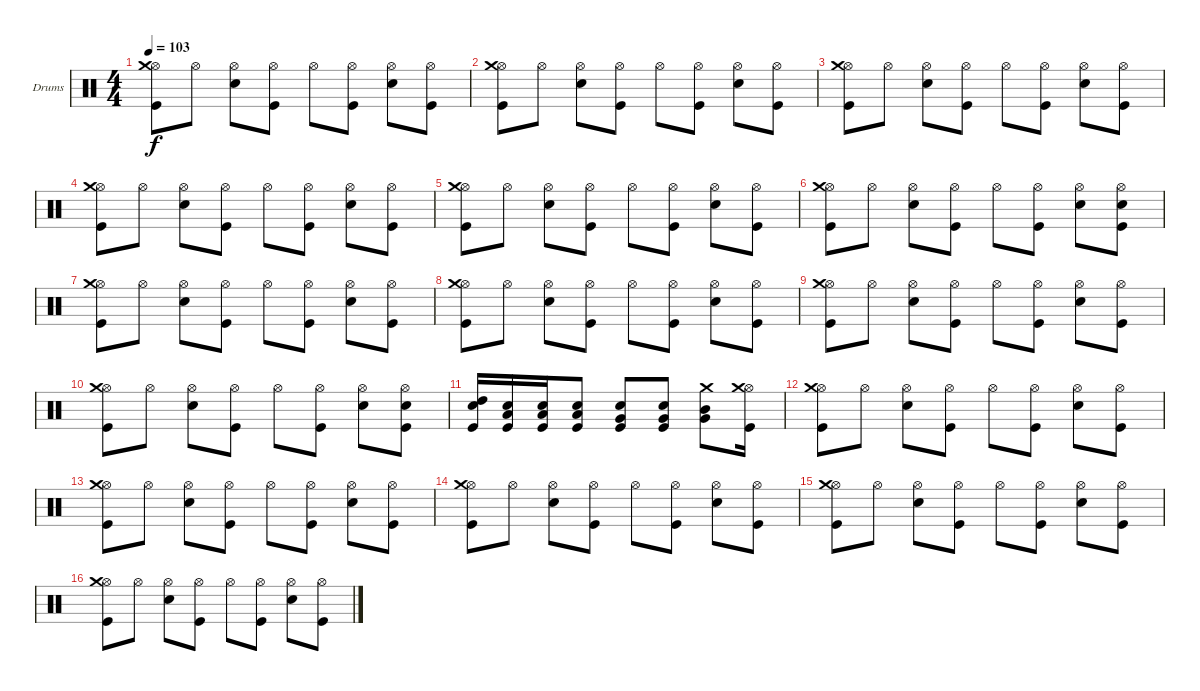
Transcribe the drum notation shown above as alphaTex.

\defaultSystemsLayout 4
\bracketExtendMode nobrackets
\firstSystemTrackNameOrientation horizontal
\otherSystemsTrackNameOrientation horizontal
\track ("Dave Abbruzzese" "Drums") {solo instrument percussion}
\staff {score}
\articulation defaults
\ts (4 4)
\tempo 103
\clef neutral
\ks c
("Kick (hit)" "Hi-Hat (open)" "Crash medium (hit)").8{dy f} "Hi-Hat (open)".8 ("Snare (hit) 2" "Hi-Hat (open)").8 ("Kick (hit)" "Hi-Hat (open)").8 "Hi-Hat (open)".8 ("Kick (hit)" "Hi-Hat (open)").8 ("Snare (hit) 2" "Hi-Hat (open)").8 ("Kick (hit)" "Hi-Hat (open)").8 |
("Kick (hit)" "Hi-Hat (open)" "Crash medium (hit)").8 "Hi-Hat (open)".8 ("Snare (hit) 2" "Hi-Hat (open)").8 ("Kick (hit)" "Hi-Hat (open)").8 "Hi-Hat (open)".8 ("Kick (hit)" "Hi-Hat (open)").8 ("Snare (hit) 2" "Hi-Hat (open)").8 ("Kick (hit)" "Hi-Hat (open)").8 |
("Kick (hit)" "Hi-Hat (open)" "Crash medium (hit)").8 "Hi-Hat (open)".8 ("Snare (hit) 2" "Hi-Hat (open)").8 ("Kick (hit)" "Hi-Hat (open)").8 "Hi-Hat (open)".8 ("Kick (hit)" "Hi-Hat (open)").8 ("Snare (hit) 2" "Hi-Hat (open)").8 ("Kick (hit)" "Hi-Hat (open)").8 |
("Kick (hit)" "Hi-Hat (open)" "Crash medium (hit)").8 "Hi-Hat (open)".8 ("Snare (hit) 2" "Hi-Hat (open)").8 ("Kick (hit)" "Hi-Hat (open)").8 "Hi-Hat (open)".8 ("Kick (hit)" "Hi-Hat (open)").8 ("Snare (hit) 2" "Hi-Hat (open)").8 ("Kick (hit)" "Hi-Hat (open)").8 |
("Kick (hit)" "Hi-Hat (open)" "Crash medium (hit)").8 "Hi-Hat (open)".8 ("Snare (hit) 2" "Hi-Hat (open)").8 ("Kick (hit)" "Hi-Hat (open)").8 "Hi-Hat (open)".8 ("Kick (hit)" "Hi-Hat (open)").8 ("Snare (hit) 2" "Hi-Hat (open)").8 ("Kick (hit)" "Hi-Hat (open)").8 |
("Kick (hit)" "Hi-Hat (open)" "Crash medium (hit)").8 "Hi-Hat (open)".8 ("Snare (hit) 2" "Hi-Hat (open)").8 ("Kick (hit)" "Hi-Hat (open)").8 "Hi-Hat (open)".8 ("Kick (hit)" "Hi-Hat (open)").8 ("Snare (hit) 2" "Hi-Hat (open)").8 ("Kick (hit)" "Hi-Hat (open)" "Snare (hit) 2").8 |
("Kick (hit)" "Hi-Hat (open)" "Crash medium (hit)").8 "Hi-Hat (open)".8 ("Snare (hit) 2" "Hi-Hat (open)").8 ("Kick (hit)" "Hi-Hat (open)").8 "Hi-Hat (open)".8 ("Kick (hit)" "Hi-Hat (open)").8 ("Snare (hit) 2" "Hi-Hat (open)").8 ("Kick (hit)" "Hi-Hat (open)").8 |
("Kick (hit)" "Hi-Hat (open)" "Crash medium (hit)").8 "Hi-Hat (open)".8 ("Snare (hit) 2" "Hi-Hat (open)").8 ("Kick (hit)" "Hi-Hat (open)").8 "Hi-Hat (open)".8 ("Kick (hit)" "Hi-Hat (open)").8 ("Snare (hit) 2" "Hi-Hat (open)").8 ("Kick (hit)" "Hi-Hat (open)").8 |
("Kick (hit)" "Hi-Hat (open)" "Crash medium (hit)").8 "Hi-Hat (open)".8 ("Snare (hit) 2" "Hi-Hat (open)").8 ("Kick (hit)" "Hi-Hat (open)").8 "Hi-Hat (open)".8 ("Kick (hit)" "Hi-Hat (open)").8 ("Snare (hit) 2" "Hi-Hat (open)").8 ("Kick (hit)" "Hi-Hat (open)").8 |
("Kick (hit)" "Hi-Hat (open)" "Crash medium (hit)").8 "Hi-Hat (open)".8 ("Snare (hit) 2" "Hi-Hat (open)").8 ("Kick (hit)" "Hi-Hat (open)").8 "Hi-Hat (open)".8 ("Kick (hit)" "Hi-Hat (open)").8 ("Snare (hit) 2" "Hi-Hat (open)").8 ("Kick (hit)" "Hi-Hat (open)" "Snare (hit) 2").8 |
("Kick (hit)" "High Tom (hit)" "Snare (hit) 2").16 ("Kick (hit)" "Low Tom (hit)" "Snare (hit) 2").16 ("Kick (hit)" "Low Tom (hit)" "Snare (hit) 2").16 ("Kick (hit)" "Low Tom (hit)" "Snare (hit) 2").8 ("Kick (hit)" "Very Low Tom (hit)" "Snare (hit) 2").8 ("Kick (hit)" "Very Low Tom (hit)" "Snare (hit) 2").8 ("Very Low Tom (hit)" "Mid Tom (hit)" "Crash medium (hit)").8 ("Kick (hit)" "Hi-Hat (open)" "Crash medium (hit)").16 |
("Kick (hit)" "Hi-Hat (open)" "Crash medium (hit)").8 "Hi-Hat (open)".8 ("Snare (hit) 2" "Hi-Hat (open)").8 ("Kick (hit)" "Hi-Hat (open)").8 "Hi-Hat (open)".8 ("Kick (hit)" "Hi-Hat (open)").8 ("Snare (hit) 2" "Hi-Hat (open)").8 ("Kick (hit)" "Hi-Hat (open)").8 |
("Kick (hit)" "Hi-Hat (open)" "Crash medium (hit)").8 "Hi-Hat (open)".8 ("Snare (hit) 2" "Hi-Hat (open)").8 ("Kick (hit)" "Hi-Hat (open)").8 "Hi-Hat (open)".8 ("Kick (hit)" "Hi-Hat (open)").8 ("Snare (hit) 2" "Hi-Hat (open)").8 ("Kick (hit)" "Hi-Hat (open)").8 |
("Kick (hit)" "Hi-Hat (open)" "Crash medium (hit)").8 "Hi-Hat (open)".8 ("Snare (hit) 2" "Hi-Hat (open)").8 ("Kick (hit)" "Hi-Hat (open)").8 "Hi-Hat (open)".8 ("Kick (hit)" "Hi-Hat (open)").8 ("Snare (hit) 2" "Hi-Hat (open)").8 ("Kick (hit)" "Hi-Hat (open)").8 |
("Kick (hit)" "Hi-Hat (open)" "Crash medium (hit)").8 "Hi-Hat (open)".8 ("Snare (hit) 2" "Hi-Hat (open)").8 ("Kick (hit)" "Hi-Hat (open)").8 "Hi-Hat (open)".8 ("Kick (hit)" "Hi-Hat (open)").8 ("Snare (hit) 2" "Hi-Hat (open)").8 ("Kick (hit)" "Hi-Hat (open)").8 |
("Kick (hit)" "Hi-Hat (open)" "Crash medium (hit)").8 "Hi-Hat (open)".8 ("Snare (hit) 2" "Hi-Hat (open)").8 ("Kick (hit)" "Hi-Hat (open)").8 "Hi-Hat (open)".8 ("Kick (hit)" "Hi-Hat (open)").8 ("Snare (hit) 2" "Hi-Hat (open)").8 ("Kick (hit)" "Hi-Hat (open)").8
